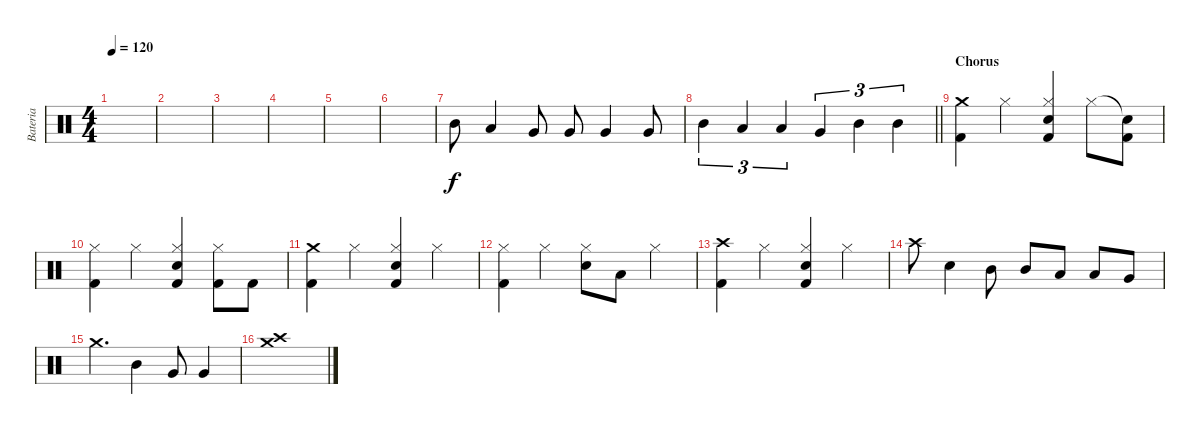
\track ("Bateria" "Bateria") {instrument percussion}
\staff {score}
\articulation defaults
\ts (4 4)
\tempo 120
\clef neutral
\ks c
|
|
|
|
|
|
"Mid Tom (hit)".8{dy f} "Low Tom (hit)".4 "Very Low Tom (hit)".8 "Very Low Tom (hit)".8 "Very Low Tom (hit)".4 "Very Low Tom (hit)".8 |
\barLineRight lightlight "Mid Tom (hit)".4{tu (3 2)} "Low Tom (hit)".4{tu (3 2)} "Low Tom (hit)".4{tu (3 2)} "Very Low Tom (hit)".4{tu (3 2)} "Mid Tom (hit)".4{tu (3 2)} "Mid Tom (hit)".4{tu (3 2)}
|
\section ("" "Chorus")
("Crash medium (hit)" "Kick (hit) 2").4 "Hi-Hat (closed)".4 ("Hi-Hat (closed)" "Electric Snare (hit)" "Kick (hit) 2").4 "Hi-Hat (closed)".8 ("Snare (hit)"{t} "Kick (hit) 2").8 |
("Hi-Hat (closed)" "Kick (hit) 2").4 "Hi-Hat (closed)".4 ("Hi-Hat (closed)" "Electric Snare (hit)" "Kick (hit) 2").4 ("Hi-Hat (closed)" "Kick (hit) 2").8 "Kick (hit) 2".8 |
("Crash medium (hit)" "Kick (hit) 2").4 "Hi-Hat (closed)".4 ("Hi-Hat (closed)" "Electric Snare (hit)" "Kick (hit) 2").4 "Hi-Hat (closed)".4 |
("Hi-Hat (closed)" "Kick (hit) 2").4 "Hi-Hat (closed)".4 ("Hi-Hat (closed)" "Electric Snare (hit)").8 "Low Tom (hit)".8 "Hi-Hat (closed)".4 |
("Crash high (hit)" "Kick (hit) 2").4 "Hi-Hat (closed)".4 ("Hi-Hat (closed)" "Electric Snare (hit)" "Kick (hit) 2").4 "Hi-Hat (closed)".4 |
"Crash high (hit)".8 "Electric Snare (hit)".4 "Mid Tom (hit)".8 "Mid Tom (hit)".8 "Low Tom (hit)".8 "Low Tom (hit)".8 "Very Low Tom (hit)".8 |
"Crash medium (hit)".4{d} "Mid Tom (hit)".4 "Very Low Tom (hit)".8 "Very Low Tom (hit)".4 |
("Crash medium (hit)" "Crash high (hit)").1
